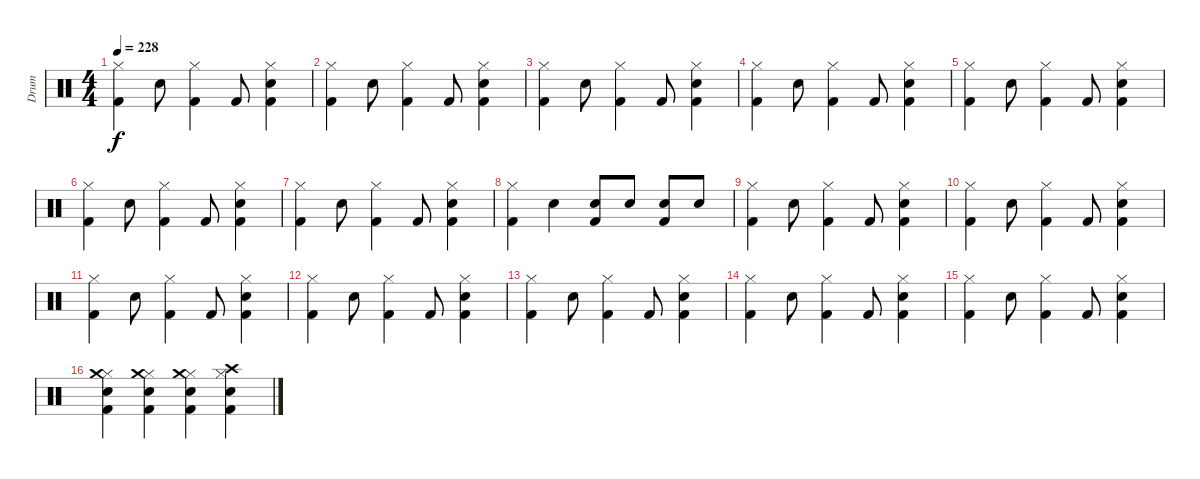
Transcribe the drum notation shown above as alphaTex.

\track ("Drum" "Drum") {instrument percussion}
\staff {score}
\articulation defaults
\ts (4 4)
\tempo 228
\clef neutral
\ks c
("Hi-Hat (closed)" "Kick (hit) 2").4{dy f} "Snare (hit) 2".8 ("Hi-Hat (closed)" "Kick (hit) 2").4 "Kick (hit) 2".8 ("Hi-Hat (closed)" "Snare (hit) 2" "Kick (hit) 2").4 |
("Hi-Hat (closed)" "Kick (hit) 2").4 "Snare (hit) 2".8 ("Hi-Hat (closed)" "Kick (hit) 2").4 "Kick (hit) 2".8 ("Hi-Hat (closed)" "Snare (hit) 2" "Kick (hit) 2").4 |
("Hi-Hat (closed)" "Kick (hit) 2").4 "Snare (hit) 2".8 ("Hi-Hat (closed)" "Kick (hit) 2").4 "Kick (hit) 2".8 ("Hi-Hat (closed)" "Snare (hit) 2" "Kick (hit) 2").4 |
("Hi-Hat (closed)" "Kick (hit) 2").4 "Snare (hit) 2".8 ("Hi-Hat (closed)" "Kick (hit) 2").4 "Kick (hit) 2".8 ("Hi-Hat (closed)" "Snare (hit) 2" "Kick (hit) 2").4 |
("Hi-Hat (closed)" "Kick (hit) 2").4 "Snare (hit) 2".8 ("Hi-Hat (closed)" "Kick (hit) 2").4 "Kick (hit) 2".8 ("Hi-Hat (closed)" "Snare (hit) 2" "Kick (hit) 2").4 |
("Hi-Hat (closed)" "Kick (hit) 2").4 "Snare (hit) 2".8 ("Hi-Hat (closed)" "Kick (hit) 2").4 "Kick (hit) 2".8 ("Hi-Hat (closed)" "Snare (hit) 2" "Kick (hit) 2").4 |
("Hi-Hat (closed)" "Kick (hit) 2").4 "Snare (hit) 2".8 ("Hi-Hat (closed)" "Kick (hit) 2").4 "Kick (hit) 2".8 ("Hi-Hat (closed)" "Snare (hit) 2" "Kick (hit) 2").4 |
("Hi-Hat (closed)" "Kick (hit) 2").4 "Snare (hit) 2".4 ("Snare (hit) 2" "Kick (hit) 2").8 "Snare (hit) 2".8 ("Snare (hit) 2" "Kick (hit) 2").8 "Snare (hit) 2".8 |
("Hi-Hat (closed)" "Kick (hit) 2").4 "Snare (hit) 2".8 ("Hi-Hat (closed)" "Kick (hit) 2").4 "Kick (hit) 2".8 ("Hi-Hat (closed)" "Snare (hit) 2" "Kick (hit) 2").4 |
("Hi-Hat (closed)" "Kick (hit) 2").4 "Snare (hit) 2".8 ("Hi-Hat (closed)" "Kick (hit) 2").4 "Kick (hit) 2".8 ("Hi-Hat (closed)" "Snare (hit) 2" "Kick (hit) 2").4 |
("Hi-Hat (closed)" "Kick (hit) 2").4 "Snare (hit) 2".8 ("Hi-Hat (closed)" "Kick (hit) 2").4 "Kick (hit) 2".8 ("Hi-Hat (closed)" "Snare (hit) 2" "Kick (hit) 2").4 |
("Hi-Hat (closed)" "Kick (hit) 2").4 "Snare (hit) 2".8 ("Hi-Hat (closed)" "Kick (hit) 2").4 "Kick (hit) 2".8 ("Hi-Hat (closed)" "Snare (hit) 2" "Kick (hit) 2").4 |
("Hi-Hat (closed)" "Kick (hit) 2").4 "Snare (hit) 2".8 ("Hi-Hat (closed)" "Kick (hit) 2").4 "Kick (hit) 2".8 ("Hi-Hat (closed)" "Snare (hit) 2" "Kick (hit) 2").4 |
("Hi-Hat (closed)" "Kick (hit) 2").4 "Snare (hit) 2".8 ("Hi-Hat (closed)" "Kick (hit) 2").4 "Kick (hit) 2".8 ("Hi-Hat (closed)" "Snare (hit) 2" "Kick (hit) 2").4 |
("Hi-Hat (closed)" "Kick (hit) 2").4 "Snare (hit) 2".8 ("Hi-Hat (closed)" "Kick (hit) 2").4 "Kick (hit) 2".8 ("Hi-Hat (closed)" "Snare (hit) 2" "Kick (hit) 2").4 |
("Hi-Hat (closed)" "Crash medium (hit)" "Snare (hit) 2" "Kick (hit) 2").4 ("Hi-Hat (closed)" "Crash medium (hit)" "Snare (hit) 2" "Kick (hit) 2").4 ("Hi-Hat (closed)" "Crash medium (hit)" "Snare (hit) 2" "Kick (hit) 2").4 ("Hi-Hat (closed)" "Crash high (hit)" "Snare (hit) 2" "Kick (hit) 2").4
